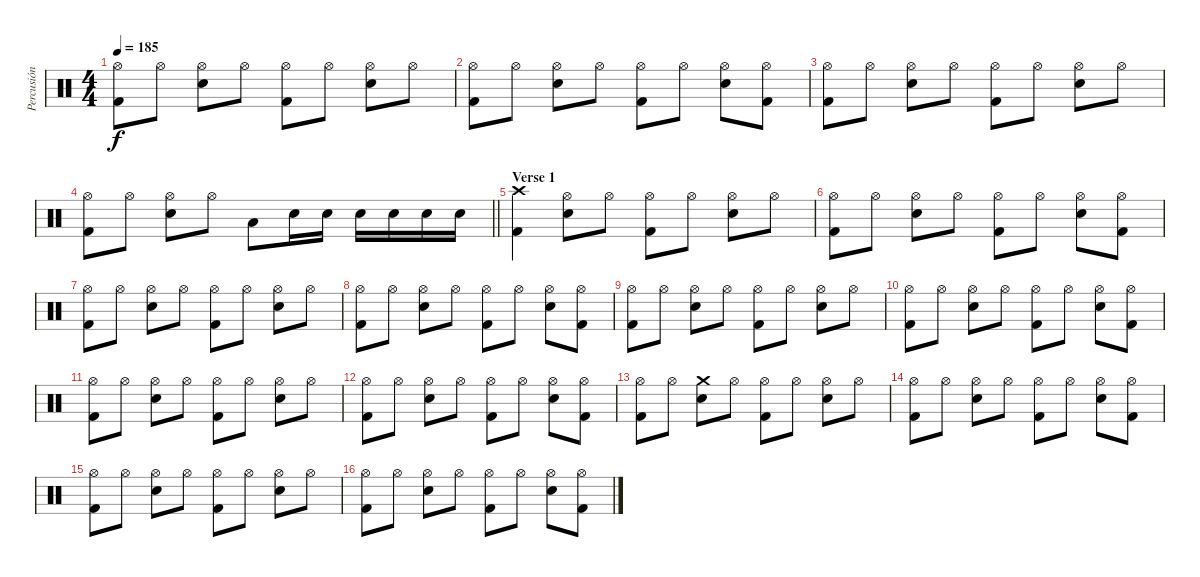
\track ("Percusión" "Percusión") {instrument percussion}
\staff {score}
\articulation defaults
\ts (4 4)
\tempo 185
\clef neutral
\ks c
("Hi-Hat (open)" "Kick (hit) 2").8{dy f} "Hi-Hat (open)".8 ("Hi-Hat (open)" "Electric Snare (hit)").8 "Hi-Hat (open)".8 ("Hi-Hat (open)" "Kick (hit) 2").8 "Hi-Hat (open)".8 ("Hi-Hat (open)" "Electric Snare (hit)").8 "Hi-Hat (open)".8 |
("Hi-Hat (open)" "Kick (hit) 2").8 "Hi-Hat (open)".8 ("Hi-Hat (open)" "Electric Snare (hit)").8 "Hi-Hat (open)".8 ("Hi-Hat (open)" "Kick (hit) 2").8 "Hi-Hat (open)".8 ("Hi-Hat (open)" "Electric Snare (hit)").8 ("Hi-Hat (open)" "Kick (hit) 2").8 |
("Hi-Hat (open)" "Kick (hit) 2").8 "Hi-Hat (open)".8 ("Hi-Hat (open)" "Electric Snare (hit)").8 "Hi-Hat (open)".8 ("Hi-Hat (open)" "Kick (hit) 2").8 "Hi-Hat (open)".8 ("Hi-Hat (open)" "Electric Snare (hit)").8 "Hi-Hat (open)".8 |
\barLineRight lightlight
("Hi-Hat (open)" "Kick (hit) 2").8 "Hi-Hat (open)".8 ("Hi-Hat (open)" "Electric Snare (hit)").8 "Hi-Hat (open)".8 "Low Tom (hit)".8 "Electric Snare (hit)".16 "Electric Snare (hit)".16 "Electric Snare (hit)".16 "Electric Snare (hit)".16 "Electric Snare (hit)".16 "Electric Snare (hit)".16 |
\section ("" "Verse 1")
("Crash high (hit)" "Kick (hit) 2").4 ("Hi-Hat (open)" "Electric Snare (hit)").8 "Hi-Hat (open)".8 ("Hi-Hat (open)" "Kick (hit) 2").8 "Hi-Hat (open)".8 ("Hi-Hat (open)" "Electric Snare (hit)").8 "Hi-Hat (open)".8 |
("Hi-Hat (open)" "Kick (hit) 2").8 "Hi-Hat (open)".8 ("Hi-Hat (open)" "Electric Snare (hit)").8 "Hi-Hat (open)".8 ("Hi-Hat (open)" "Kick (hit) 2").8 "Hi-Hat (open)".8 ("Hi-Hat (open)" "Electric Snare (hit)").8 ("Hi-Hat (open)" "Kick (hit) 2").8 |
("Hi-Hat (open)" "Kick (hit) 2").8 "Hi-Hat (open)".8 ("Hi-Hat (open)" "Electric Snare (hit)").8 "Hi-Hat (open)".8 ("Hi-Hat (open)" "Kick (hit) 2").8 "Hi-Hat (open)".8 ("Hi-Hat (open)" "Electric Snare (hit)").8 "Hi-Hat (open)".8 |
("Hi-Hat (open)" "Kick (hit) 2").8 "Hi-Hat (open)".8 ("Hi-Hat (open)" "Electric Snare (hit)").8 "Hi-Hat (open)".8 ("Hi-Hat (open)" "Kick (hit) 2").8 "Hi-Hat (open)".8 ("Hi-Hat (open)" "Electric Snare (hit)").8 ("Hi-Hat (open)" "Kick (hit) 2").8 |
("Hi-Hat (open)" "Kick (hit) 2").8 "Hi-Hat (open)".8 ("Hi-Hat (open)" "Electric Snare (hit)").8 "Hi-Hat (open)".8 ("Hi-Hat (open)" "Kick (hit) 2").8 "Hi-Hat (open)".8 ("Hi-Hat (open)" "Electric Snare (hit)").8 "Hi-Hat (open)".8 |
("Hi-Hat (open)" "Kick (hit) 2").8 "Hi-Hat (open)".8 ("Hi-Hat (open)" "Electric Snare (hit)").8 "Hi-Hat (open)".8 ("Hi-Hat (open)" "Kick (hit) 2").8 "Hi-Hat (open)".8 ("Hi-Hat (open)" "Electric Snare (hit)").8 ("Hi-Hat (open)" "Kick (hit) 2").8 |
("Hi-Hat (open)" "Kick (hit) 2").8 "Hi-Hat (open)".8 ("Hi-Hat (open)" "Electric Snare (hit)").8 "Hi-Hat (open)".8 ("Hi-Hat (open)" "Kick (hit) 2").8 "Hi-Hat (open)".8 ("Hi-Hat (open)" "Electric Snare (hit)").8 "Hi-Hat (open)".8 |
("Hi-Hat (open)" "Kick (hit) 2").8 "Hi-Hat (open)".8 ("Hi-Hat (open)" "Electric Snare (hit)").8 "Hi-Hat (open)".8 ("Hi-Hat (open)" "Kick (hit) 2").8 "Hi-Hat (open)".8 ("Hi-Hat (open)" "Electric Snare (hit)").8 ("Hi-Hat (open)" "Kick (hit) 2").8 |
("Hi-Hat (open)" "Kick (hit) 2").8 "Hi-Hat (open)".8 ("Crash medium (hit)" "Electric Snare (hit)").8 "Hi-Hat (open)".8 ("Hi-Hat (open)" "Kick (hit) 2").8 "Hi-Hat (open)".8 ("Hi-Hat (open)" "Electric Snare (hit)").8 "Hi-Hat (open)".8 |
("Hi-Hat (open)" "Kick (hit) 2").8 "Hi-Hat (open)".8 ("Hi-Hat (open)" "Electric Snare (hit)").8 "Hi-Hat (open)".8 ("Hi-Hat (open)" "Kick (hit) 2").8 "Hi-Hat (open)".8 ("Hi-Hat (open)" "Electric Snare (hit)").8 ("Hi-Hat (open)" "Kick (hit) 2").8 |
("Hi-Hat (open)" "Kick (hit) 2").8 "Hi-Hat (open)".8 ("Hi-Hat (open)" "Electric Snare (hit)").8 "Hi-Hat (open)".8 ("Hi-Hat (open)" "Kick (hit) 2").8 "Hi-Hat (open)".8 ("Hi-Hat (open)" "Electric Snare (hit)").8 "Hi-Hat (open)".8 |
("Hi-Hat (open)" "Kick (hit) 2").8 "Hi-Hat (open)".8 ("Hi-Hat (open)" "Electric Snare (hit)").8 "Hi-Hat (open)".8 ("Hi-Hat (open)" "Kick (hit) 2").8 "Hi-Hat (open)".8 ("Hi-Hat (open)" "Electric Snare (hit)").8 ("Hi-Hat (open)" "Kick (hit) 2").8
